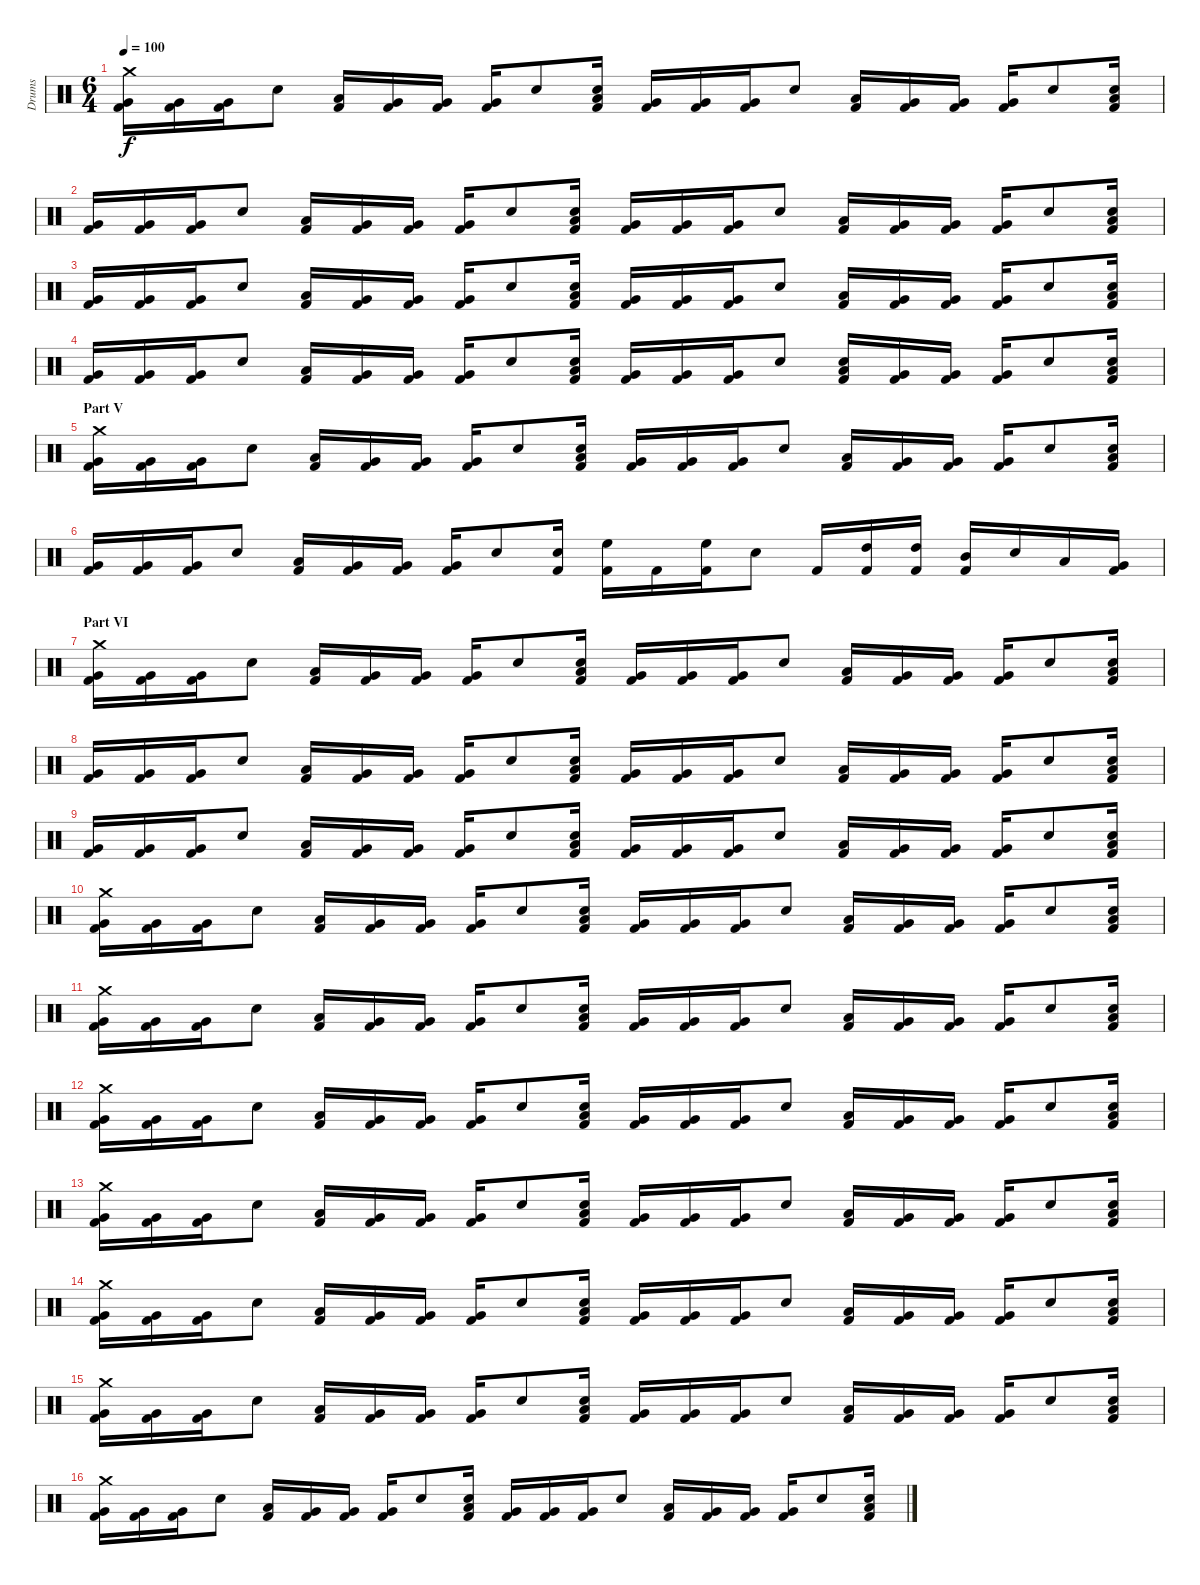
\track ("Drums" "Drums") {instrument percussion}
\staff {score}
\articulation defaults
\ts (6 4)
\tempo 100
\clef neutral
\ks c
("Crash medium (hit)" "Very Low Tom (hit)" "Kick (hit) 2").16{dy f} ("Very Low Tom (hit)" "Kick (hit) 2").16 ("Very Low Tom (hit)" "Kick (hit) 2").16 "Electric Snare (hit)".8 ("Low Floor Tom (hit)" "Kick (hit) 2").16 ("Very Low Tom (hit)" "Kick (hit) 2").16 ("Very Low Tom (hit)" "Kick (hit) 2").16 ("Very Low Tom (hit)" "Kick (hit) 2").16 "Electric Snare (hit)".8 ("Electric Snare (hit)" "Low Floor Tom (hit)" "Kick (hit) 2").16 ("Very Low Tom (hit)" "Kick (hit) 2").16 ("Very Low Tom (hit)" "Kick (hit) 2").16 ("Very Low Tom (hit)" "Kick (hit) 2").16 "Electric Snare (hit)".8 ("Low Floor Tom (hit)" "Kick (hit) 2").16 ("Very Low Tom (hit)" "Kick (hit) 2").16 ("Very Low Tom (hit)" "Kick (hit) 2").16 ("Very Low Tom (hit)" "Kick (hit) 2").16 "Electric Snare (hit)".8 ("Electric Snare (hit)" "Low Floor Tom (hit)" "Kick (hit) 2").16 |
("Very Low Tom (hit)" "Kick (hit) 2").16 ("Very Low Tom (hit)" "Kick (hit) 2").16 ("Very Low Tom (hit)" "Kick (hit) 2").16 "Electric Snare (hit)".8 ("Low Floor Tom (hit)" "Kick (hit) 2").16 ("Very Low Tom (hit)" "Kick (hit) 2").16 ("Very Low Tom (hit)" "Kick (hit) 2").16 ("Very Low Tom (hit)" "Kick (hit) 2").16 "Electric Snare (hit)".8 ("Electric Snare (hit)" "Low Floor Tom (hit)" "Kick (hit) 2").16 ("Very Low Tom (hit)" "Kick (hit) 2").16 ("Very Low Tom (hit)" "Kick (hit) 2").16 ("Very Low Tom (hit)" "Kick (hit) 2").16 "Electric Snare (hit)".8 ("Low Floor Tom (hit)" "Kick (hit) 2").16 ("Very Low Tom (hit)" "Kick (hit) 2").16 ("Very Low Tom (hit)" "Kick (hit) 2").16 ("Very Low Tom (hit)" "Kick (hit) 2").16 "Electric Snare (hit)".8 ("Electric Snare (hit)" "Low Floor Tom (hit)" "Kick (hit) 2").16 |
("Very Low Tom (hit)" "Kick (hit) 2").16 ("Very Low Tom (hit)" "Kick (hit) 2").16 ("Very Low Tom (hit)" "Kick (hit) 2").16 "Electric Snare (hit)".8 ("Low Floor Tom (hit)" "Kick (hit) 2").16 ("Very Low Tom (hit)" "Kick (hit) 2").16 ("Very Low Tom (hit)" "Kick (hit) 2").16 ("Very Low Tom (hit)" "Kick (hit) 2").16 "Electric Snare (hit)".8 ("Electric Snare (hit)" "Low Floor Tom (hit)" "Kick (hit) 2").16 ("Very Low Tom (hit)" "Kick (hit) 2").16 ("Very Low Tom (hit)" "Kick (hit) 2").16 ("Very Low Tom (hit)" "Kick (hit) 2").16 "Electric Snare (hit)".8 ("Low Floor Tom (hit)" "Kick (hit) 2").16 ("Very Low Tom (hit)" "Kick (hit) 2").16 ("Very Low Tom (hit)" "Kick (hit) 2").16 ("Very Low Tom (hit)" "Kick (hit) 2").16 "Electric Snare (hit)".8 ("Electric Snare (hit)" "Low Floor Tom (hit)" "Kick (hit) 2").16 |
("Very Low Tom (hit)" "Kick (hit) 2").16 ("Very Low Tom (hit)" "Kick (hit) 2").16 ("Very Low Tom (hit)" "Kick (hit) 2").16 "Electric Snare (hit)".8 ("Low Floor Tom (hit)" "Kick (hit) 2").16 ("Very Low Tom (hit)" "Kick (hit) 2").16 ("Very Low Tom (hit)" "Kick (hit) 2").16 ("Very Low Tom (hit)" "Kick (hit) 2").16 "Electric Snare (hit)".8 ("Electric Snare (hit)" "Low Floor Tom (hit)" "Kick (hit) 2").16 ("Very Low Tom (hit)" "Kick (hit) 2").16 ("Very Low Tom (hit)" "Kick (hit) 2").16 ("Very Low Tom (hit)" "Kick (hit) 2").16 "Electric Snare (hit)".8 ("Electric Snare (hit)" "Low Floor Tom (hit)" "Kick (hit) 2").16 ("Very Low Tom (hit)" "Kick (hit) 2").16 ("Very Low Tom (hit)" "Kick (hit) 2").16 ("Very Low Tom (hit)" "Kick (hit) 2").16 "Electric Snare (hit)".8 ("Electric Snare (hit)" "Low Floor Tom (hit)" "Kick (hit) 2").16 |
\section ("" "Part V")
("Crash medium (hit)" "Very Low Tom (hit)" "Kick (hit) 2").16 ("Very Low Tom (hit)" "Kick (hit) 2").16 ("Very Low Tom (hit)" "Kick (hit) 2").16 "Electric Snare (hit)".8 ("Low Floor Tom (hit)" "Kick (hit) 2").16 ("Very Low Tom (hit)" "Kick (hit) 2").16 ("Very Low Tom (hit)" "Kick (hit) 2").16 ("Very Low Tom (hit)" "Kick (hit) 2").16 "Electric Snare (hit)".8 ("Electric Snare (hit)" "Low Floor Tom (hit)" "Kick (hit) 2").16 ("Very Low Tom (hit)" "Kick (hit) 2").16 ("Very Low Tom (hit)" "Kick (hit) 2").16 ("Very Low Tom (hit)" "Kick (hit) 2").16 "Electric Snare (hit)".8 ("Low Floor Tom (hit)" "Kick (hit) 2").16 ("Very Low Tom (hit)" "Kick (hit) 2").16 ("Very Low Tom (hit)" "Kick (hit) 2").16 ("Very Low Tom (hit)" "Kick (hit) 2").16 "Electric Snare (hit)".8 ("Electric Snare (hit)" "Low Floor Tom (hit)" "Kick (hit) 2").16 |
("Very Low Tom (hit)" "Kick (hit) 2").16 ("Very Low Tom (hit)" "Kick (hit) 2").16 ("Very Low Tom (hit)" "Kick (hit) 2").16 "Electric Snare (hit)".8 ("Low Floor Tom (hit)" "Kick (hit) 2").16 ("Very Low Tom (hit)" "Kick (hit) 2").16 ("Very Low Tom (hit)" "Kick (hit) 2").16 ("Very Low Tom (hit)" "Kick (hit) 2").16 "Electric Snare (hit)".8 ("Electric Snare (hit)" "Kick (hit) 2").16 ("High Floor Tom (hit)" "Kick (hit) 2").16 "Kick (hit) 2".16 ("High Floor Tom (hit)" "Kick (hit) 2").16 "Electric Snare (hit)".8 "Kick (hit) 2".16 ("High Tom (hit)" "Kick (hit) 2").16 ("High Tom (hit)" "Kick (hit) 2").16 ("Mid Tom (hit)" "Kick (hit) 2").16 "Electric Snare (hit)".16 "Low Tom (hit)".16 ("Very Low Tom (hit)" "Kick (hit) 2").16 |
\section ("" "Part VI")
("Crash medium (hit)" "Very Low Tom (hit)" "Kick (hit) 2").16 ("Very Low Tom (hit)" "Kick (hit) 2").16 ("Very Low Tom (hit)" "Kick (hit) 2").16 "Electric Snare (hit)".8 ("Low Floor Tom (hit)" "Kick (hit) 2").16 ("Very Low Tom (hit)" "Kick (hit) 2").16 ("Very Low Tom (hit)" "Kick (hit) 2").16 ("Very Low Tom (hit)" "Kick (hit) 2").16 "Electric Snare (hit)".8 ("Electric Snare (hit)" "Low Floor Tom (hit)" "Kick (hit) 2").16 ("Very Low Tom (hit)" "Kick (hit) 2").16 ("Very Low Tom (hit)" "Kick (hit) 2").16 ("Very Low Tom (hit)" "Kick (hit) 2").16 "Electric Snare (hit)".8 ("Low Floor Tom (hit)" "Kick (hit) 2").16 ("Very Low Tom (hit)" "Kick (hit) 2").16 ("Very Low Tom (hit)" "Kick (hit) 2").16 ("Very Low Tom (hit)" "Kick (hit) 2").16 "Electric Snare (hit)".8 ("Electric Snare (hit)" "Low Floor Tom (hit)" "Kick (hit) 2").16 |
("Very Low Tom (hit)" "Kick (hit) 2").16 ("Very Low Tom (hit)" "Kick (hit) 2").16 ("Very Low Tom (hit)" "Kick (hit) 2").16 "Electric Snare (hit)".8 ("Low Floor Tom (hit)" "Kick (hit) 2").16 ("Very Low Tom (hit)" "Kick (hit) 2").16 ("Very Low Tom (hit)" "Kick (hit) 2").16 ("Very Low Tom (hit)" "Kick (hit) 2").16 "Electric Snare (hit)".8 ("Electric Snare (hit)" "Low Floor Tom (hit)" "Kick (hit) 2").16 ("Very Low Tom (hit)" "Kick (hit) 2").16 ("Very Low Tom (hit)" "Kick (hit) 2").16 ("Very Low Tom (hit)" "Kick (hit) 2").16 "Electric Snare (hit)".8 ("Low Floor Tom (hit)" "Kick (hit) 2").16 ("Very Low Tom (hit)" "Kick (hit) 2").16 ("Very Low Tom (hit)" "Kick (hit) 2").16 ("Very Low Tom (hit)" "Kick (hit) 2").16 "Electric Snare (hit)".8 ("Electric Snare (hit)" "Low Floor Tom (hit)" "Kick (hit) 2").16 |
("Very Low Tom (hit)" "Kick (hit) 2").16 ("Very Low Tom (hit)" "Kick (hit) 2").16 ("Very Low Tom (hit)" "Kick (hit) 2").16 "Electric Snare (hit)".8 ("Low Floor Tom (hit)" "Kick (hit) 2").16 ("Very Low Tom (hit)" "Kick (hit) 2").16 ("Very Low Tom (hit)" "Kick (hit) 2").16 ("Very Low Tom (hit)" "Kick (hit) 2").16 "Electric Snare (hit)".8 ("Electric Snare (hit)" "Low Floor Tom (hit)" "Kick (hit) 2").16 ("Very Low Tom (hit)" "Kick (hit) 2").16 ("Very Low Tom (hit)" "Kick (hit) 2").16 ("Very Low Tom (hit)" "Kick (hit) 2").16 "Electric Snare (hit)".8 ("Low Floor Tom (hit)" "Kick (hit) 2").16 ("Very Low Tom (hit)" "Kick (hit) 2").16 ("Very Low Tom (hit)" "Kick (hit) 2").16 ("Very Low Tom (hit)" "Kick (hit) 2").16 "Electric Snare (hit)".8 ("Electric Snare (hit)" "Low Floor Tom (hit)" "Kick (hit) 2").16 |
("Crash medium (hit)" "Very Low Tom (hit)" "Kick (hit) 2").16 ("Very Low Tom (hit)" "Kick (hit) 2").16 ("Very Low Tom (hit)" "Kick (hit) 2").16 "Electric Snare (hit)".8 ("Low Floor Tom (hit)" "Kick (hit) 2").16 ("Very Low Tom (hit)" "Kick (hit) 2").16 ("Very Low Tom (hit)" "Kick (hit) 2").16 ("Very Low Tom (hit)" "Kick (hit) 2").16 "Electric Snare (hit)".8 ("Electric Snare (hit)" "Low Floor Tom (hit)" "Kick (hit) 2").16 ("Very Low Tom (hit)" "Kick (hit) 2").16 ("Very Low Tom (hit)" "Kick (hit) 2").16 ("Very Low Tom (hit)" "Kick (hit) 2").16 "Electric Snare (hit)".8 ("Low Floor Tom (hit)" "Kick (hit) 2").16 ("Very Low Tom (hit)" "Kick (hit) 2").16 ("Very Low Tom (hit)" "Kick (hit) 2").16 ("Very Low Tom (hit)" "Kick (hit) 2").16 "Electric Snare (hit)".8 ("Electric Snare (hit)" "Low Floor Tom (hit)" "Kick (hit) 2").16 |
("Crash medium (hit)" "Very Low Tom (hit)" "Kick (hit) 2").16 ("Very Low Tom (hit)" "Kick (hit) 2").16 ("Very Low Tom (hit)" "Kick (hit) 2").16 "Electric Snare (hit)".8 ("Low Floor Tom (hit)" "Kick (hit) 2").16 ("Very Low Tom (hit)" "Kick (hit) 2").16 ("Very Low Tom (hit)" "Kick (hit) 2").16 ("Very Low Tom (hit)" "Kick (hit) 2").16 "Electric Snare (hit)".8 ("Electric Snare (hit)" "Low Floor Tom (hit)" "Kick (hit) 2").16 ("Very Low Tom (hit)" "Kick (hit) 2").16 ("Very Low Tom (hit)" "Kick (hit) 2").16 ("Very Low Tom (hit)" "Kick (hit) 2").16 "Electric Snare (hit)".8 ("Low Floor Tom (hit)" "Kick (hit) 2").16 ("Very Low Tom (hit)" "Kick (hit) 2").16 ("Very Low Tom (hit)" "Kick (hit) 2").16 ("Very Low Tom (hit)" "Kick (hit) 2").16 "Electric Snare (hit)".8 ("Electric Snare (hit)" "Low Floor Tom (hit)" "Kick (hit) 2").16 |
("Crash medium (hit)" "Very Low Tom (hit)" "Kick (hit) 2").16 ("Very Low Tom (hit)" "Kick (hit) 2").16 ("Very Low Tom (hit)" "Kick (hit) 2").16 "Electric Snare (hit)".8 ("Low Floor Tom (hit)" "Kick (hit) 2").16 ("Very Low Tom (hit)" "Kick (hit) 2").16 ("Very Low Tom (hit)" "Kick (hit) 2").16 ("Very Low Tom (hit)" "Kick (hit) 2").16 "Electric Snare (hit)".8 ("Electric Snare (hit)" "Low Floor Tom (hit)" "Kick (hit) 2").16 ("Very Low Tom (hit)" "Kick (hit) 2").16 ("Very Low Tom (hit)" "Kick (hit) 2").16 ("Very Low Tom (hit)" "Kick (hit) 2").16 "Electric Snare (hit)".8 ("Low Floor Tom (hit)" "Kick (hit) 2").16 ("Very Low Tom (hit)" "Kick (hit) 2").16 ("Very Low Tom (hit)" "Kick (hit) 2").16 ("Very Low Tom (hit)" "Kick (hit) 2").16 "Electric Snare (hit)".8 ("Electric Snare (hit)" "Low Floor Tom (hit)" "Kick (hit) 2").16 |
("Crash medium (hit)" "Very Low Tom (hit)" "Kick (hit) 2").16 ("Very Low Tom (hit)" "Kick (hit) 2").16 ("Very Low Tom (hit)" "Kick (hit) 2").16 "Electric Snare (hit)".8 ("Low Floor Tom (hit)" "Kick (hit) 2").16 ("Very Low Tom (hit)" "Kick (hit) 2").16 ("Very Low Tom (hit)" "Kick (hit) 2").16 ("Very Low Tom (hit)" "Kick (hit) 2").16 "Electric Snare (hit)".8 ("Electric Snare (hit)" "Low Floor Tom (hit)" "Kick (hit) 2").16 ("Very Low Tom (hit)" "Kick (hit) 2").16 ("Very Low Tom (hit)" "Kick (hit) 2").16 ("Very Low Tom (hit)" "Kick (hit) 2").16 "Electric Snare (hit)".8 ("Low Floor Tom (hit)" "Kick (hit) 2").16 ("Very Low Tom (hit)" "Kick (hit) 2").16 ("Very Low Tom (hit)" "Kick (hit) 2").16 ("Very Low Tom (hit)" "Kick (hit) 2").16 "Electric Snare (hit)".8 ("Electric Snare (hit)" "Low Floor Tom (hit)" "Kick (hit) 2").16 |
("Crash medium (hit)" "Very Low Tom (hit)" "Kick (hit) 2").16 ("Very Low Tom (hit)" "Kick (hit) 2").16 ("Very Low Tom (hit)" "Kick (hit) 2").16 "Electric Snare (hit)".8 ("Low Floor Tom (hit)" "Kick (hit) 2").16 ("Very Low Tom (hit)" "Kick (hit) 2").16 ("Very Low Tom (hit)" "Kick (hit) 2").16 ("Very Low Tom (hit)" "Kick (hit) 2").16 "Electric Snare (hit)".8 ("Electric Snare (hit)" "Low Floor Tom (hit)" "Kick (hit) 2").16 ("Very Low Tom (hit)" "Kick (hit) 2").16 ("Very Low Tom (hit)" "Kick (hit) 2").16 ("Very Low Tom (hit)" "Kick (hit) 2").16 "Electric Snare (hit)".8 ("Low Floor Tom (hit)" "Kick (hit) 2").16 ("Very Low Tom (hit)" "Kick (hit) 2").16 ("Very Low Tom (hit)" "Kick (hit) 2").16 ("Very Low Tom (hit)" "Kick (hit) 2").16 "Electric Snare (hit)".8 ("Electric Snare (hit)" "Low Floor Tom (hit)" "Kick (hit) 2").16 |
("Crash medium (hit)" "Very Low Tom (hit)" "Kick (hit) 2").16 ("Very Low Tom (hit)" "Kick (hit) 2").16 ("Very Low Tom (hit)" "Kick (hit) 2").16 "Electric Snare (hit)".8 ("Low Floor Tom (hit)" "Kick (hit) 2").16 ("Very Low Tom (hit)" "Kick (hit) 2").16 ("Very Low Tom (hit)" "Kick (hit) 2").16 ("Very Low Tom (hit)" "Kick (hit) 2").16 "Electric Snare (hit)".8 ("Electric Snare (hit)" "Low Floor Tom (hit)" "Kick (hit) 2").16 ("Very Low Tom (hit)" "Kick (hit) 2").16 ("Very Low Tom (hit)" "Kick (hit) 2").16 ("Very Low Tom (hit)" "Kick (hit) 2").16 "Electric Snare (hit)".8 ("Low Floor Tom (hit)" "Kick (hit) 2").16 ("Very Low Tom (hit)" "Kick (hit) 2").16 ("Very Low Tom (hit)" "Kick (hit) 2").16 ("Very Low Tom (hit)" "Kick (hit) 2").16 "Electric Snare (hit)".8 ("Electric Snare (hit)" "Low Floor Tom (hit)" "Kick (hit) 2").16 |
("Crash medium (hit)" "Very Low Tom (hit)" "Kick (hit) 2").16 ("Very Low Tom (hit)" "Kick (hit) 2").16 ("Very Low Tom (hit)" "Kick (hit) 2").16 "Electric Snare (hit)".8 ("Low Floor Tom (hit)" "Kick (hit) 2").16 ("Very Low Tom (hit)" "Kick (hit) 2").16 ("Very Low Tom (hit)" "Kick (hit) 2").16 ("Very Low Tom (hit)" "Kick (hit) 2").16 "Electric Snare (hit)".8 ("Electric Snare (hit)" "Low Floor Tom (hit)" "Kick (hit) 2").16 ("Very Low Tom (hit)" "Kick (hit) 2").16 ("Very Low Tom (hit)" "Kick (hit) 2").16 ("Very Low Tom (hit)" "Kick (hit) 2").16 "Electric Snare (hit)".8 ("Low Floor Tom (hit)" "Kick (hit) 2").16 ("Very Low Tom (hit)" "Kick (hit) 2").16 ("Very Low Tom (hit)" "Kick (hit) 2").16 ("Very Low Tom (hit)" "Kick (hit) 2").16 "Electric Snare (hit)".8 ("Electric Snare (hit)" "Low Floor Tom (hit)" "Kick (hit) 2").16
